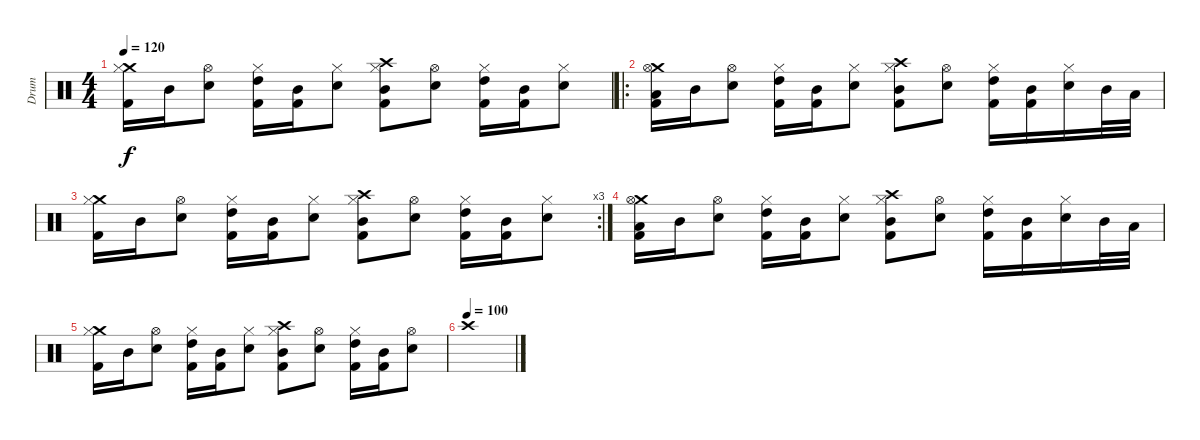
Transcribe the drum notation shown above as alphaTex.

\track ("Drum" "Drum") {instrument percussion}
\staff {score}
\articulation defaults
\ts (4 4)
\tempo 120
\clef neutral
\ks c
("Crash medium (hit)" "Hi-Hat (closed)" "Kick (hit) 2").16{dy f} "Mid Tom (hit)".16 ("Hi-Hat (open)" "Snare (hit) 2").8 ("Hi-Hat (closed)" "High Tom (hit)" "Kick (hit) 2").16 ("Mid Tom (hit)" "Kick (hit) 2").16 ("Hi-Hat (closed)" "Snare (hit) 2").8 ("Crash high (hit)" "Hi-Hat (closed)" "Mid Tom (hit)" "Kick (hit) 2").8 ("Hi-Hat (open)" "Snare (hit) 2").8 ("Hi-Hat (closed)" "High Tom (hit)" "Kick (hit) 2").16 ("Mid Tom (hit)" "Kick (hit) 2").16 ("Hi-Hat (closed)" "Snare (hit) 2").8 |
\ro
("Crash medium (hit)" "Hi-Hat (open)" "Low Tom (hit)" "Kick (hit) 2").16 "Mid Tom (hit)".16 ("Hi-Hat (open)" "Snare (hit) 2").8 ("Hi-Hat (closed)" "High Tom (hit)" "Kick (hit) 2").16 ("Mid Tom (hit)" "Kick (hit) 2").16 ("Hi-Hat (closed)" "Snare (hit) 2").8 ("Crash high (hit)" "Hi-Hat (closed)" "Mid Tom (hit)" "Kick (hit) 2").8 ("Hi-Hat (open)" "Snare (hit) 2").8 ("Hi-Hat (closed)" "High Tom (hit)" "Kick (hit) 2").16 ("Mid Tom (hit)" "Kick (hit) 2").16 ("Hi-Hat (closed)" "Snare (hit) 2").16 "Mid Tom (hit)".32 "Low Tom (hit)".32 |
\rc 3
("Crash medium (hit)" "Hi-Hat (closed)" "Kick (hit) 2").16 "Mid Tom (hit)".16 ("Hi-Hat (open)" "Snare (hit) 2").8 ("Hi-Hat (closed)" "High Tom (hit)" "Kick (hit) 2").16 ("Mid Tom (hit)" "Kick (hit) 2").16 ("Hi-Hat (closed)" "Snare (hit) 2").8 ("Crash high (hit)" "Hi-Hat (closed)" "Mid Tom (hit)" "Kick (hit) 2").8 ("Hi-Hat (open)" "Snare (hit) 2").8 ("Hi-Hat (closed)" "High Tom (hit)" "Kick (hit) 2").16 ("Mid Tom (hit)" "Kick (hit) 2").16 ("Hi-Hat (closed)" "Snare (hit) 2").8 |
("Crash medium (hit)" "Hi-Hat (open)" "Low Tom (hit)" "Kick (hit) 2").16 "Mid Tom (hit)".16 ("Hi-Hat (open)" "Snare (hit) 2").8 ("Hi-Hat (closed)" "High Tom (hit)" "Kick (hit) 2").16 ("Mid Tom (hit)" "Kick (hit) 2").16 ("Hi-Hat (closed)" "Snare (hit) 2").8 ("Crash high (hit)" "Hi-Hat (closed)" "Mid Tom (hit)" "Kick (hit) 2").8 ("Hi-Hat (open)" "Snare (hit) 2").8 ("Hi-Hat (closed)" "High Tom (hit)" "Kick (hit) 2").16 ("Mid Tom (hit)" "Kick (hit) 2").16 ("Hi-Hat (closed)" "Snare (hit) 2").16 "Mid Tom (hit)".32 "Low Tom (hit)".32 |
("Crash medium (hit)" "Hi-Hat (closed)" "Kick (hit) 2").16 "Mid Tom (hit)".16 ("Hi-Hat (open)" "Snare (hit) 2").8 ("Hi-Hat (closed)" "High Tom (hit)" "Kick (hit) 2").16 ("Mid Tom (hit)" "Kick (hit) 2").16 ("Hi-Hat (closed)" "Snare (hit) 2").8 ("Crash high (hit)" "Hi-Hat (closed)" "Mid Tom (hit)" "Kick (hit) 2").8 ("Hi-Hat (open)" "Snare (hit) 2").8 ("Hi-Hat (closed)" "High Tom (hit)" "Kick (hit) 2").16 ("Mid Tom (hit)" "Kick (hit) 2").16 ("Hi-Hat (open)" "Snare (hit) 2").8 |
\tempo (100)
"Crash high (hit)".1
